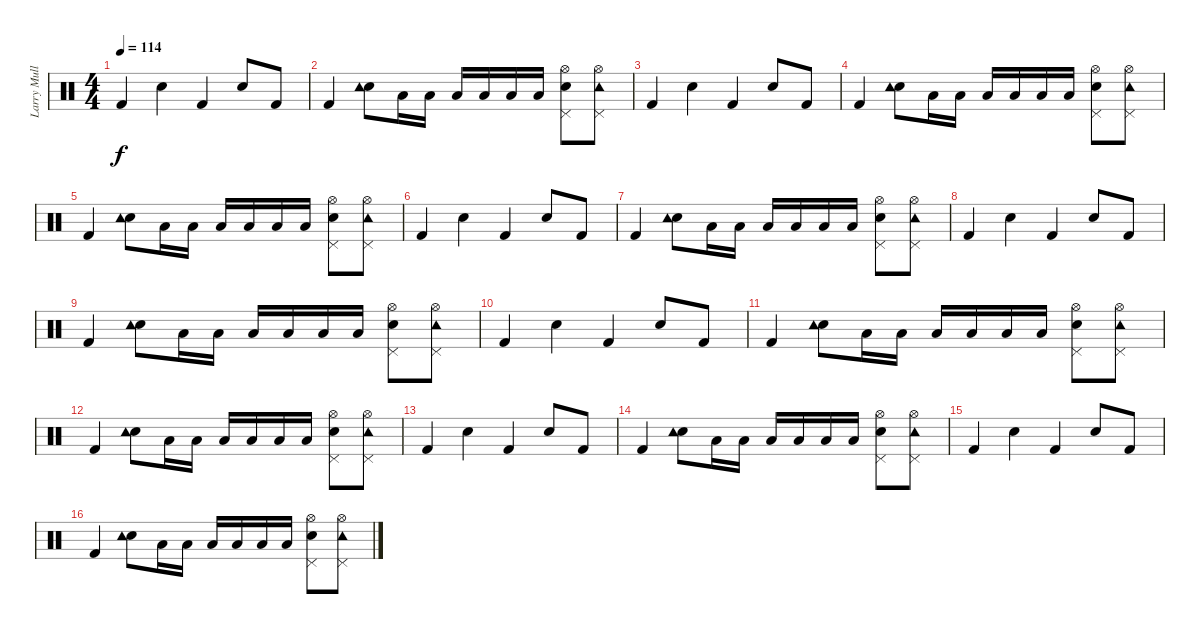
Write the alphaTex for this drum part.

\track ("Larry Mullen Jr Drums" "Larry Mull") {instrument percussion}
\staff {score}
\articulation defaults
\ts (4 4)
\tempo 114
\clef neutral
\ks c "Kick (hit) 2".4{dy f} "Snare (hit) 2".4 "Kick (hit) 2".4 "Snare (hit) 2".8 "Kick (hit) 2".8
|
"Kick (hit) 2".4 ("Snare (hit) 2" "Tambourine (hit)").8 "Low Tom (hit)".16 "Low Tom (hit)".16 "Low Tom (hit)".16 "Low Tom (hit)".16 "Low Tom (hit)".16 "Low Tom (hit)".16 ("Snare (hit) 2" "Pedal Hi-Hat (hit)" "Hi-Hat (open)").8 ("Hi-Hat (open)" "Pedal Hi-Hat (hit)" "Tambourine (hit)").8 |
"Kick (hit) 2".4 "Snare (hit) 2".4 "Kick (hit) 2".4 "Snare (hit) 2".8 "Kick (hit) 2".8 |
"Kick (hit) 2".4 ("Snare (hit) 2" "Tambourine (hit)").8 "Low Tom (hit)".16 "Low Tom (hit)".16 "Low Tom (hit)".16 "Low Tom (hit)".16 "Low Tom (hit)".16 "Low Tom (hit)".16 ("Snare (hit) 2" "Pedal Hi-Hat (hit)" "Hi-Hat (open)").8 ("Hi-Hat (open)" "Pedal Hi-Hat (hit)" "Tambourine (hit)").8 |
"Kick (hit) 2".4 ("Snare (hit) 2" "Tambourine (hit)").8 "Low Tom (hit)".16 "Low Tom (hit)".16 "Low Tom (hit)".16 "Low Tom (hit)".16 "Low Tom (hit)".16 "Low Tom (hit)".16 ("Snare (hit) 2" "Pedal Hi-Hat (hit)" "Hi-Hat (open)").8 ("Hi-Hat (open)" "Pedal Hi-Hat (hit)" "Tambourine (hit)").8 |
"Kick (hit) 2".4 "Snare (hit) 2".4 "Kick (hit) 2".4 "Snare (hit) 2".8 "Kick (hit) 2".8 |
"Kick (hit) 2".4 ("Snare (hit) 2" "Tambourine (hit)").8 "Low Tom (hit)".16 "Low Tom (hit)".16 "Low Tom (hit)".16 "Low Tom (hit)".16 "Low Tom (hit)".16 "Low Tom (hit)".16 ("Snare (hit) 2" "Pedal Hi-Hat (hit)" "Hi-Hat (open)").8 ("Hi-Hat (open)" "Pedal Hi-Hat (hit)" "Tambourine (hit)").8 |
"Kick (hit) 2".4 "Snare (hit) 2".4 "Kick (hit) 2".4 "Snare (hit) 2".8 "Kick (hit) 2".8 |
"Kick (hit) 2".4 ("Snare (hit) 2" "Tambourine (hit)").8 "Low Tom (hit)".16 "Low Tom (hit)".16 "Low Tom (hit)".16 "Low Tom (hit)".16 "Low Tom (hit)".16 "Low Tom (hit)".16 ("Snare (hit) 2" "Pedal Hi-Hat (hit)" "Hi-Hat (open)").8 ("Hi-Hat (open)" "Pedal Hi-Hat (hit)" "Tambourine (hit)").8 |
"Kick (hit) 2".4 "Snare (hit) 2".4 "Kick (hit) 2".4 "Snare (hit) 2".8 "Kick (hit) 2".8 |
"Kick (hit) 2".4 ("Snare (hit) 2" "Tambourine (hit)").8 "Low Tom (hit)".16 "Low Tom (hit)".16 "Low Tom (hit)".16 "Low Tom (hit)".16 "Low Tom (hit)".16 "Low Tom (hit)".16 ("Snare (hit) 2" "Pedal Hi-Hat (hit)" "Hi-Hat (open)").8 ("Hi-Hat (open)" "Pedal Hi-Hat (hit)" "Tambourine (hit)").8 |
"Kick (hit) 2".4 ("Snare (hit) 2" "Tambourine (hit)").8 "Low Tom (hit)".16 "Low Tom (hit)".16 "Low Tom (hit)".16 "Low Tom (hit)".16 "Low Tom (hit)".16 "Low Tom (hit)".16 ("Snare (hit) 2" "Pedal Hi-Hat (hit)" "Hi-Hat (open)").8 ("Hi-Hat (open)" "Pedal Hi-Hat (hit)" "Tambourine (hit)").8 |
"Kick (hit) 2".4 "Snare (hit) 2".4 "Kick (hit) 2".4 "Snare (hit) 2".8 "Kick (hit) 2".8 |
"Kick (hit) 2".4 ("Snare (hit) 2" "Tambourine (hit)").8 "Low Tom (hit)".16 "Low Tom (hit)".16 "Low Tom (hit)".16 "Low Tom (hit)".16 "Low Tom (hit)".16 "Low Tom (hit)".16 ("Snare (hit) 2" "Pedal Hi-Hat (hit)" "Hi-Hat (open)").8 ("Hi-Hat (open)" "Pedal Hi-Hat (hit)" "Tambourine (hit)").8 |
"Kick (hit) 2".4 "Snare (hit) 2".4 "Kick (hit) 2".4 "Snare (hit) 2".8 "Kick (hit) 2".8 |
"Kick (hit) 2".4{volume 0} ("Snare (hit) 2" "Tambourine (hit)").8 "Low Tom (hit)".16 "Low Tom (hit)".16 "Low Tom (hit)".16 "Low Tom (hit)".16 "Low Tom (hit)".16 "Low Tom (hit)".16 ("Snare (hit) 2" "Pedal Hi-Hat (hit)" "Hi-Hat (open)").8 ("Hi-Hat (open)" "Pedal Hi-Hat (hit)" "Tambourine (hit)").8
